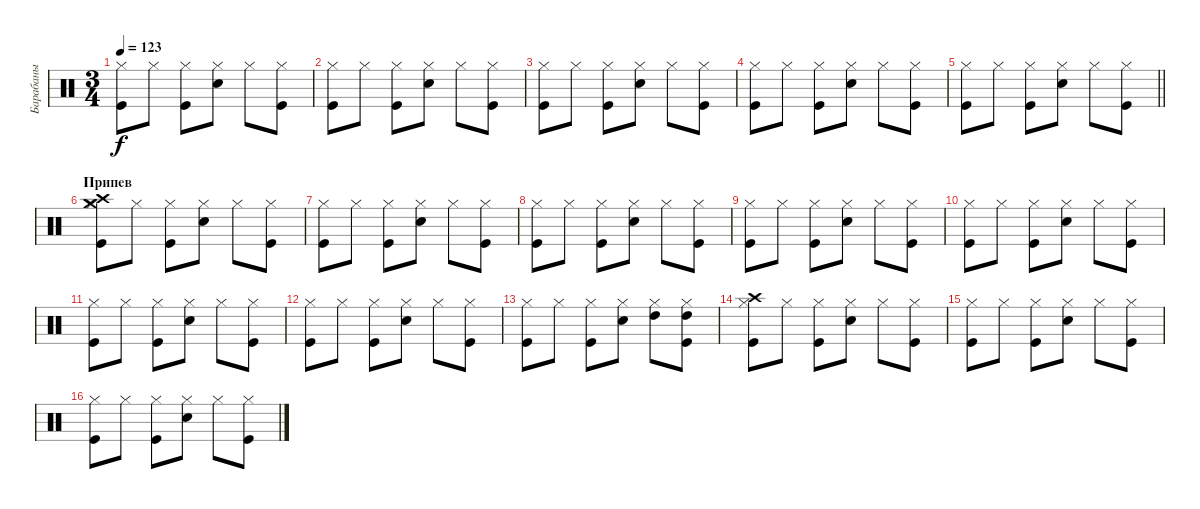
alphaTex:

\track ("Барабаны" "Барабаны") {instrument percussion}
\staff {score}
\articulation defaults
\ts (3 4)
\tempo 123
\clef neutral
\ks c
("Kick (hit)" "Hi-Hat (closed)").8{dy f} "Hi-Hat (closed)".8 ("Kick (hit)" "Hi-Hat (closed)").8 ("Snare (hit) 2" "Hi-Hat (closed)").8 "Hi-Hat (closed)".8 ("Kick (hit)" "Hi-Hat (closed)").8 |
("Kick (hit)" "Hi-Hat (closed)").8 "Hi-Hat (closed)".8 ("Kick (hit)" "Hi-Hat (closed)").8 ("Snare (hit) 2" "Hi-Hat (closed)").8 "Hi-Hat (closed)".8 ("Kick (hit)" "Hi-Hat (closed)").8 |
("Kick (hit)" "Hi-Hat (closed)").8 "Hi-Hat (closed)".8 ("Kick (hit)" "Hi-Hat (closed)").8 ("Snare (hit) 2" "Hi-Hat (closed)").8 "Hi-Hat (closed)".8 ("Kick (hit)" "Hi-Hat (closed)").8 |
("Kick (hit)" "Hi-Hat (closed)").8 "Hi-Hat (closed)".8 ("Kick (hit)" "Hi-Hat (closed)").8 ("Snare (hit) 2" "Hi-Hat (closed)").8 "Hi-Hat (closed)".8 ("Kick (hit)" "Hi-Hat (closed)").8 |
\barLineRight lightlight
("Kick (hit)" "Hi-Hat (closed)").8 "Hi-Hat (closed)".8 ("Kick (hit)" "Hi-Hat (closed)").8 ("Snare (hit) 2" "Hi-Hat (closed)").8 "Hi-Hat (closed)".8 ("Kick (hit)" "Hi-Hat (closed)").8 |
\section ("" "Припев")
("Kick (hit)" "Hi-Hat (closed)" "Crash high (hit)" "Crash medium (hit)").8 "Hi-Hat (closed)".8 ("Kick (hit)" "Hi-Hat (closed)").8 ("Snare (hit) 2" "Hi-Hat (closed)").8 "Hi-Hat (closed)".8 ("Kick (hit)" "Hi-Hat (closed)").8 |
("Kick (hit)" "Hi-Hat (closed)").8 "Hi-Hat (closed)".8 ("Kick (hit)" "Hi-Hat (closed)").8 ("Snare (hit) 2" "Hi-Hat (closed)").8 "Hi-Hat (closed)".8 ("Kick (hit)" "Hi-Hat (closed)").8 |
("Kick (hit)" "Hi-Hat (closed)").8 "Hi-Hat (closed)".8 ("Kick (hit)" "Hi-Hat (closed)").8 ("Snare (hit) 2" "Hi-Hat (closed)").8 "Hi-Hat (closed)".8 ("Kick (hit)" "Hi-Hat (closed)").8 |
("Kick (hit)" "Hi-Hat (closed)").8 "Hi-Hat (closed)".8 ("Kick (hit)" "Hi-Hat (closed)").8 ("Snare (hit) 2" "Hi-Hat (closed)").8 "Hi-Hat (closed)".8 ("Kick (hit)" "Hi-Hat (closed)").8 |
("Kick (hit)" "Hi-Hat (closed)").8 "Hi-Hat (closed)".8 ("Kick (hit)" "Hi-Hat (closed)").8 ("Snare (hit) 2" "Hi-Hat (closed)").8 "Hi-Hat (closed)".8 ("Kick (hit)" "Hi-Hat (closed)").8 |
("Kick (hit)" "Hi-Hat (closed)").8 "Hi-Hat (closed)".8 ("Kick (hit)" "Hi-Hat (closed)").8 ("Snare (hit) 2" "Hi-Hat (closed)").8 "Hi-Hat (closed)".8 ("Kick (hit)" "Hi-Hat (closed)").8 |
("Kick (hit)" "Hi-Hat (closed)").8 "Hi-Hat (closed)".8 ("Kick (hit)" "Hi-Hat (closed)").8 ("Snare (hit) 2" "Hi-Hat (closed)").8 "Hi-Hat (closed)".8 ("Kick (hit)" "Hi-Hat (closed)").8 |
("Kick (hit)" "Hi-Hat (closed)").8 "Hi-Hat (closed)".8 ("Kick (hit)" "Hi-Hat (closed)").8 ("Snare (hit) 2" "Hi-Hat (closed)").8 ("Hi-Hat (closed)" "High Tom (hit)").8 ("Kick (hit)" "Hi-Hat (closed)" "High Tom (hit)").8 |
("Kick (hit)" "Hi-Hat (closed)" "Crash high (hit)").8 "Hi-Hat (closed)".8 ("Kick (hit)" "Hi-Hat (closed)").8 ("Snare (hit) 2" "Hi-Hat (closed)").8 "Hi-Hat (closed)".8 ("Kick (hit)" "Hi-Hat (closed)").8 |
("Kick (hit)" "Hi-Hat (closed)").8 "Hi-Hat (closed)".8 ("Kick (hit)" "Hi-Hat (closed)").8 ("Snare (hit) 2" "Hi-Hat (closed)").8 "Hi-Hat (closed)".8 ("Kick (hit)" "Hi-Hat (closed)").8 |
("Kick (hit)" "Hi-Hat (closed)").8 "Hi-Hat (closed)".8 ("Kick (hit)" "Hi-Hat (closed)").8 ("Snare (hit) 2" "Hi-Hat (closed)").8 "Hi-Hat (closed)".8 ("Kick (hit)" "Hi-Hat (closed)").8
